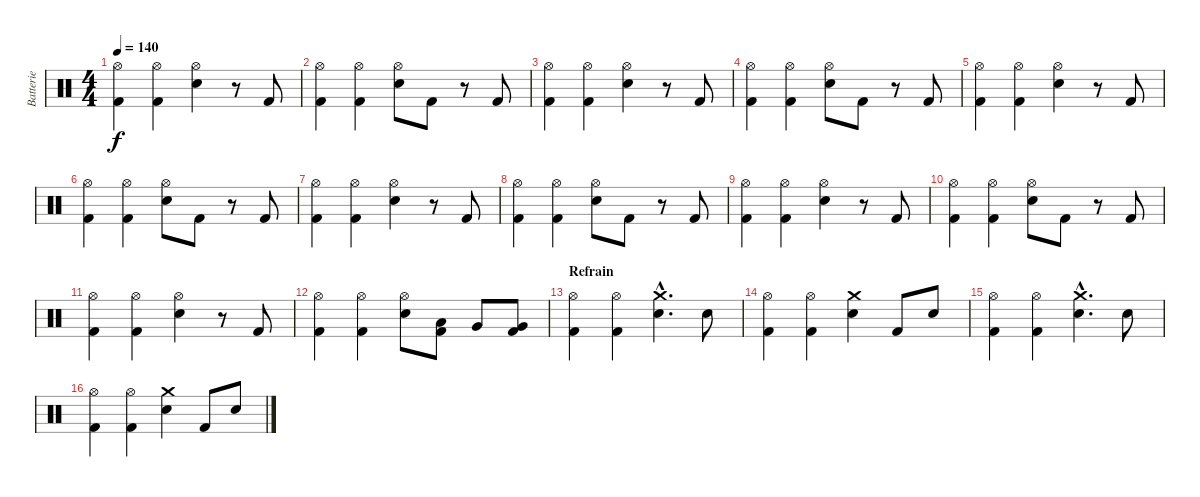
\track ("Batterie" "Batterie") {instrument percussion}
\staff {score}
\articulation defaults
\ts (4 4)
\tempo 140
\clef neutral
\ks c
("Hi-Hat (open)" "Kick (hit) 2").4{dy f} ("Hi-Hat (open)" "Kick (hit) 2").4 ("Hi-Hat (open)" "Snare (hit) 2").4 r.8 "Kick (hit) 2".8 |
("Hi-Hat (open)" "Kick (hit) 2").4 ("Hi-Hat (open)" "Kick (hit) 2").4 ("Hi-Hat (open)" "Electric Snare (hit)").8 "Kick (hit) 2".8 r.8 "Kick (hit) 2".8 |
("Hi-Hat (open)" "Kick (hit) 2").4 ("Hi-Hat (open)" "Kick (hit) 2").4 ("Hi-Hat (open)" "Electric Snare (hit)").4 r.8 "Kick (hit) 2".8 |
("Hi-Hat (open)" "Kick (hit) 2").4 ("Hi-Hat (open)" "Kick (hit) 2").4 ("Hi-Hat (open)" "Electric Snare (hit)").8 "Kick (hit) 2".8 r.8 "Kick (hit) 2".8 |
("Hi-Hat (open)" "Kick (hit) 2").4 ("Hi-Hat (open)" "Kick (hit) 2").4 ("Hi-Hat (open)" "Electric Snare (hit)").4 r.8 "Kick (hit) 2".8 |
("Hi-Hat (open)" "Kick (hit) 2").4 ("Hi-Hat (open)" "Kick (hit) 2").4 ("Hi-Hat (open)" "Electric Snare (hit)").8 "Kick (hit) 2".8 r.8 "Kick (hit) 2".8 |
("Hi-Hat (open)" "Kick (hit) 2").4 ("Hi-Hat (open)" "Kick (hit) 2").4 ("Hi-Hat (open)" "Electric Snare (hit)").4 r.8 "Kick (hit) 2".8 |
("Hi-Hat (open)" "Kick (hit) 2").4 ("Hi-Hat (open)" "Kick (hit) 2").4 ("Hi-Hat (open)" "Electric Snare (hit)").8 "Kick (hit) 2".8 r.8 "Kick (hit) 2".8 |
("Hi-Hat (open)" "Kick (hit) 2").4 ("Hi-Hat (open)" "Kick (hit) 2").4 ("Hi-Hat (open)" "Electric Snare (hit)").4 r.8 "Kick (hit) 2".8 |
("Hi-Hat (open)" "Kick (hit) 2").4 ("Hi-Hat (open)" "Kick (hit) 2").4 ("Hi-Hat (open)" "Electric Snare (hit)").8 "Kick (hit) 2".8 r.8 "Kick (hit) 2".8 |
("Hi-Hat (open)" "Kick (hit) 2").4 ("Hi-Hat (open)" "Kick (hit) 2").4 ("Hi-Hat (open)" "Electric Snare (hit)").4 r.8 "Kick (hit) 2".8 |
("Hi-Hat (open)" "Kick (hit) 2").4 ("Hi-Hat (open)" "Kick (hit) 2").4 ("Hi-Hat (open)" "Electric Snare (hit)").8 ("Low Tom (hit)" "Kick (hit) 2").8 "Very Low Tom (hit)".8 ("Very Low Tom (hit)" "Kick (hit) 2").8 |
\section ("" "Refrain")
("Hi-Hat (open)" "Kick (hit) 2").4 ("Hi-Hat (open)" "Kick (hit) 2").4 ("Crash medium (hit)"{hac} "Snare (hit) 2"{hac}).4{d} "Snare (hit) 2".8 |
("Hi-Hat (open)" "Kick (hit) 2").4 ("Hi-Hat (open)" "Kick (hit) 2").4 ("Crash medium (hit)" "Snare (hit) 2").4 "Kick (hit) 2".8 "Snare (hit) 2".8 |
("Hi-Hat (open)" "Kick (hit) 2").4 ("Hi-Hat (open)" "Kick (hit) 2").4 ("Crash medium (hit)"{hac} "Snare (hit) 2"{hac}).4{d} "Snare (hit) 2".8 |
("Hi-Hat (open)" "Kick (hit) 2").4 ("Hi-Hat (open)" "Kick (hit) 2").4 ("Crash medium (hit)" "Snare (hit) 2").4 "Kick (hit) 2".8 "Snare (hit) 2".8
